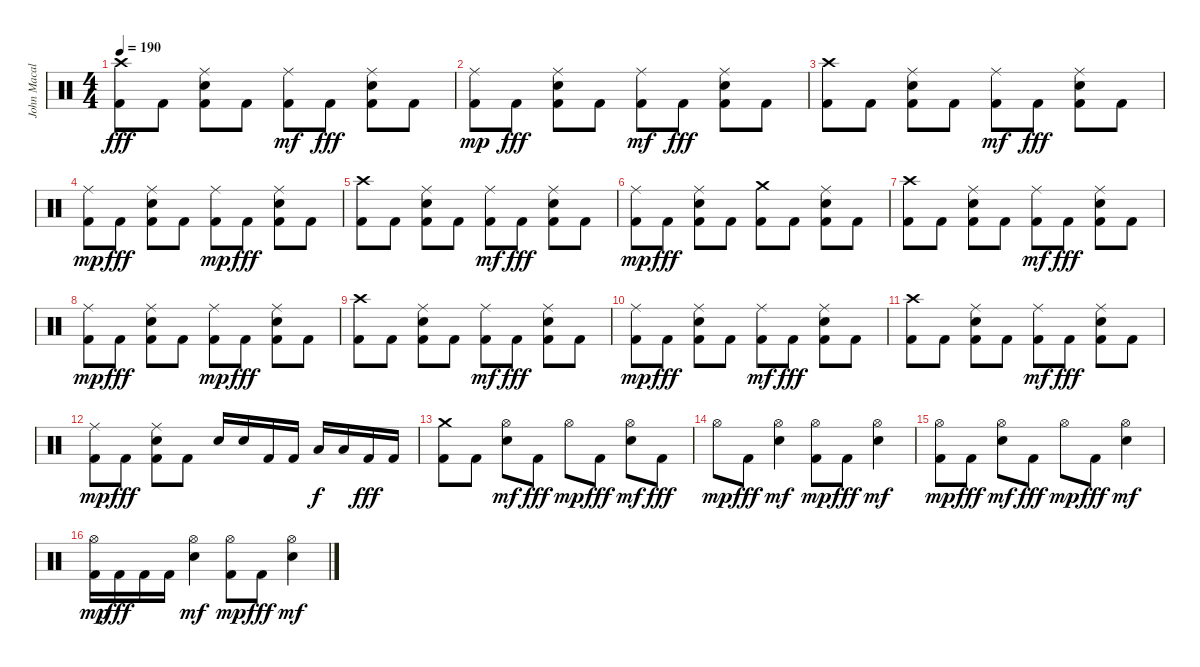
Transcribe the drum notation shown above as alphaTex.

\track ("John Macaluso drums" "John Macal") {instrument percussion}
\staff {score}
\articulation defaults
\ts (4 4)
\tempo 190
\clef neutral
\ks c
("Kick (hit) 2" "Crash high (hit)").8{dy fff} "Kick (hit) 2".8 ("Kick (hit) 2" "Snare (hit) 2" "Ride (middle)").8 "Kick (hit) 2".8 ("Kick (hit) 2" "Ride (middle)").8{dy mf} "Kick (hit) 2".8{dy fff} ("Kick (hit) 2" "Snare (hit) 2" "Ride (middle)").8 "Kick (hit) 2".8 |
("Kick (hit) 2" "Ride (middle)").8{dy mp} "Kick (hit) 2".8{dy fff} ("Kick (hit) 2" "Snare (hit) 2" "Ride (middle)").8 "Kick (hit) 2".8 ("Kick (hit) 2" "Ride (middle)").8{dy mf} "Kick (hit) 2".8{dy fff} ("Kick (hit) 2" "Snare (hit) 2" "Ride (middle)").8 "Kick (hit) 2".8 |
("Kick (hit) 2" "Crash high (hit)").8 "Kick (hit) 2".8 ("Kick (hit) 2" "Snare (hit) 2" "Ride (middle)").8 "Kick (hit) 2".8 ("Kick (hit) 2" "Ride (middle)").8{dy mf} "Kick (hit) 2".8{dy fff} ("Kick (hit) 2" "Snare (hit) 2" "Ride (middle)").8 "Kick (hit) 2".8 |
("Kick (hit) 2" "Ride (middle)").8{dy mp} "Kick (hit) 2".8{dy fff} ("Kick (hit) 2" "Snare (hit) 2" "Ride (middle)").8 "Kick (hit) 2".8 ("Kick (hit) 2" "Ride (middle)").8{dy mp} "Kick (hit) 2".8{dy fff} ("Kick (hit) 2" "Snare (hit) 2" "Ride (middle)").8 "Kick (hit) 2".8 |
("Kick (hit) 2" "Crash high (hit)").8 "Kick (hit) 2".8 ("Kick (hit) 2" "Snare (hit) 2" "Ride (middle)").8 "Kick (hit) 2".8 ("Kick (hit) 2" "Ride (middle)").8{dy mf} "Kick (hit) 2".8{dy fff} ("Kick (hit) 2" "Snare (hit) 2" "Ride (middle)").8 "Kick (hit) 2".8 |
("Kick (hit) 2" "Ride (middle)").8{dy mp} "Kick (hit) 2".8{dy fff} ("Kick (hit) 2" "Snare (hit) 2" "Ride (middle)").8 "Kick (hit) 2".8 ("Kick (hit) 2" "Crash medium (hit)").8 "Kick (hit) 2".8 ("Kick (hit) 2" "Snare (hit) 2" "Ride (middle)").8 "Kick (hit) 2".8 |
("Kick (hit) 2" "Crash high (hit)").8 "Kick (hit) 2".8 ("Kick (hit) 2" "Snare (hit) 2" "Ride (middle)").8 "Kick (hit) 2".8 ("Kick (hit) 2" "Ride (middle)").8{dy mf} "Kick (hit) 2".8{dy fff} ("Kick (hit) 2" "Snare (hit) 2" "Ride (middle)").8 "Kick (hit) 2".8 |
("Kick (hit) 2" "Ride (middle)").8{dy mp} "Kick (hit) 2".8{dy fff} ("Kick (hit) 2" "Snare (hit) 2" "Ride (middle)").8 "Kick (hit) 2".8 ("Kick (hit) 2" "Ride (middle)").8{dy mp} "Kick (hit) 2".8{dy fff} ("Kick (hit) 2" "Snare (hit) 2" "Ride (middle)").8 "Kick (hit) 2".8 |
("Kick (hit) 2" "Crash high (hit)").8 "Kick (hit) 2".8 ("Kick (hit) 2" "Snare (hit) 2" "Ride (middle)").8 "Kick (hit) 2".8 ("Kick (hit) 2" "Ride (middle)").8{dy mf} "Kick (hit) 2".8{dy fff} ("Kick (hit) 2" "Snare (hit) 2" "Ride (middle)").8 "Kick (hit) 2".8 |
("Kick (hit) 2" "Ride (middle)").8{dy mp} "Kick (hit) 2".8{dy fff} ("Kick (hit) 2" "Snare (hit) 2" "Ride (middle)").8 "Kick (hit) 2".8 ("Kick (hit) 2" "Ride (middle)").8{dy mf} "Kick (hit) 2".8{dy fff} ("Kick (hit) 2" "Snare (hit) 2" "Ride (middle)").8 "Kick (hit) 2".8 |
("Kick (hit) 2" "Crash high (hit)").8 "Kick (hit) 2".8 ("Kick (hit) 2" "Snare (hit) 2" "Ride (middle)").8 "Kick (hit) 2".8 ("Kick (hit) 2" "Ride (middle)").8{dy mf} "Kick (hit) 2".8{dy fff} ("Kick (hit) 2" "Snare (hit) 2" "Ride (middle)").8 "Kick (hit) 2".8 |
("Kick (hit) 2" "Ride (middle)").8{dy mp} "Kick (hit) 2".8{dy fff} ("Kick (hit) 2" "Snare (hit) 2" "Ride (middle)").8 "Kick (hit) 2".8 "Snare (hit) 2".16 "Snare (hit) 2".16 "Kick (hit) 2".16 "Kick (hit) 2".16 "Low Floor Tom (hit)".16{dy f} "Low Floor Tom (hit)".16 "Kick (hit) 2".16{dy fff} "Kick (hit) 2".16 |
("Kick (hit) 2" "Crash medium (hit)").8 "Kick (hit) 2".8 ("Snare (hit) 2" "Hi-Hat (open)").8{dy mf} "Kick (hit) 2".8{dy fff} "Hi-Hat (open)".8{dy mp} "Kick (hit) 2".8{dy fff} ("Snare (hit) 2" "Hi-Hat (open)").8{dy mf} "Kick (hit) 2".8{dy fff} |
"Hi-Hat (open)".8{dy mp} "Kick (hit) 2".8{dy fff} ("Snare (hit) 2" "Hi-Hat (open)").4{dy mf} ("Kick (hit) 2" "Hi-Hat (open)").8{dy mp} "Kick (hit) 2".8{dy fff} ("Snare (hit) 2" "Hi-Hat (open)").4{dy mf} |
("Kick (hit) 2" "Hi-Hat (open)").8{dy mp} "Kick (hit) 2".8{dy fff} ("Snare (hit) 2" "Hi-Hat (open)").8{dy mf} "Kick (hit) 2".8{dy fff} "Hi-Hat (open)".8{dy mp} "Kick (hit) 2".8{dy fff} ("Snare (hit) 2" "Hi-Hat (open)").4{dy mf} |
("Kick (hit) 2" "Hi-Hat (open)").16{dy mp} "Kick (hit) 2".16{dy fff} "Kick (hit) 2".16 "Kick (hit) 2".16 ("Snare (hit) 2" "Hi-Hat (open)").4{dy mf} ("Kick (hit) 2" "Hi-Hat (open)").8{dy mp} "Kick (hit) 2".8{dy fff} ("Snare (hit) 2" "Hi-Hat (open)").4{dy mf}
